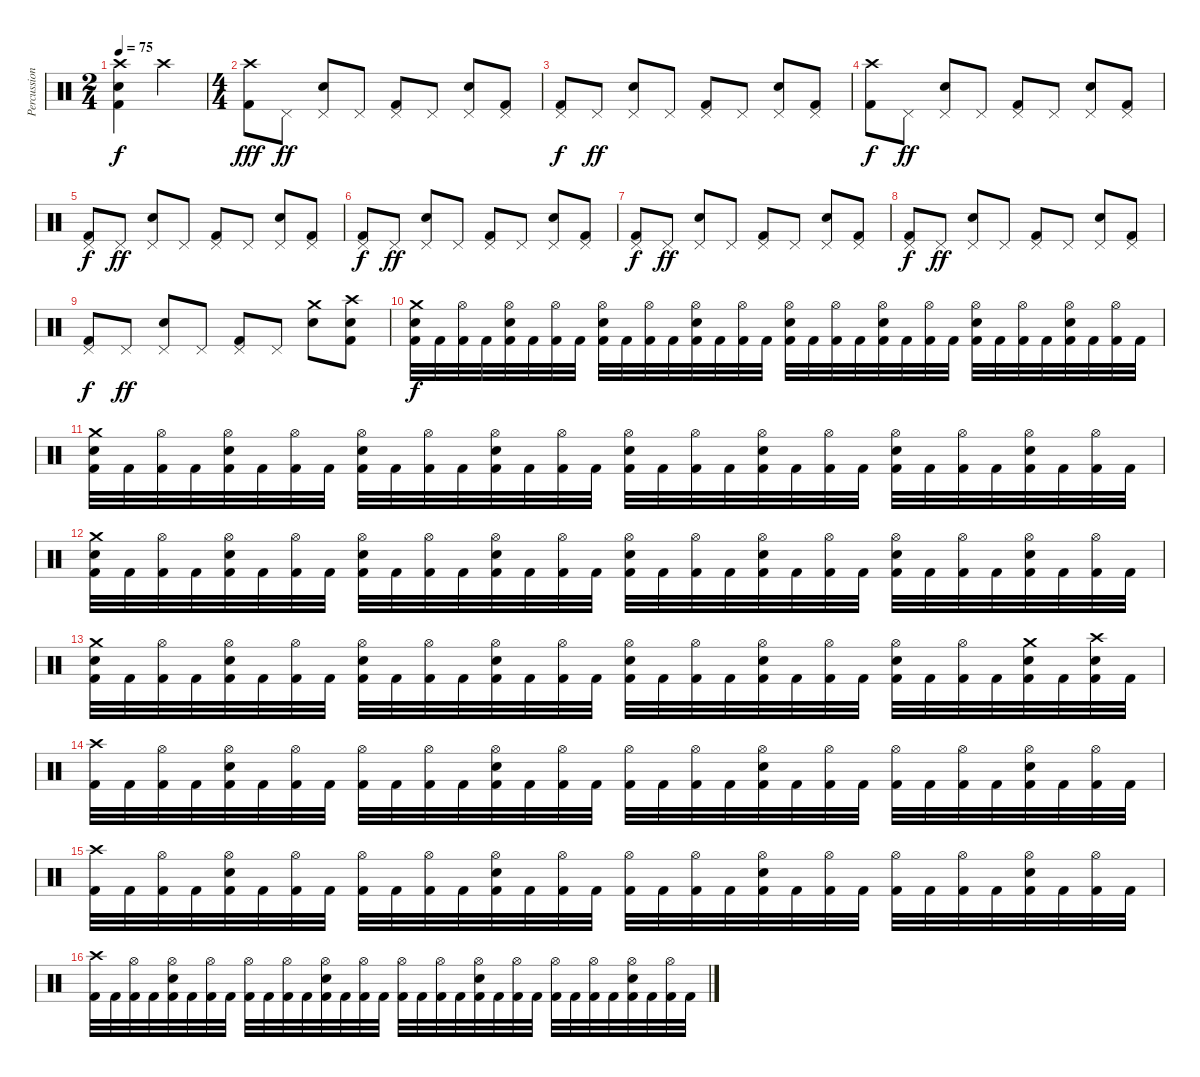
\track ("Percussion" "Percussion") {instrument percussion}
\staff {score}
\articulation defaults
\ts (2 4)
\tempo 75
\clef neutral
\ks c
("Crash high (hit)" "Electric Snare (hit)" "Kick (hit) 2").4{dy f} "Crash high (hit)".4 |
\ts (4 4)
("Crash high (hit)" "Kick (hit) 2").8{dy fff} "Pedal Hi-Hat (hit)".8{dy ff} ("Pedal Hi-Hat (hit)" "Electric Snare (hit)").8 "Pedal Hi-Hat (hit)".8 ("Pedal Hi-Hat (hit)" "Kick (hit) 2").8 "Pedal Hi-Hat (hit)".8 ("Pedal Hi-Hat (hit)" "Electric Snare (hit)").8 ("Pedal Hi-Hat (hit)" "Kick (hit) 2").8 |
("Pedal Hi-Hat (hit)" "Kick (hit) 2").8{dy f} "Pedal Hi-Hat (hit)".8{dy ff} ("Pedal Hi-Hat (hit)" "Electric Snare (hit)").8 "Pedal Hi-Hat (hit)".8 ("Pedal Hi-Hat (hit)" "Kick (hit) 2").8 "Pedal Hi-Hat (hit)".8 ("Pedal Hi-Hat (hit)" "Electric Snare (hit)").8 ("Pedal Hi-Hat (hit)" "Kick (hit) 2").8 |
("Crash high (hit)" "Kick (hit) 2").8{dy f} "Pedal Hi-Hat (hit)".8{dy ff} ("Pedal Hi-Hat (hit)" "Electric Snare (hit)").8 "Pedal Hi-Hat (hit)".8 ("Pedal Hi-Hat (hit)" "Kick (hit) 2").8 "Pedal Hi-Hat (hit)".8 ("Pedal Hi-Hat (hit)" "Electric Snare (hit)").8 ("Pedal Hi-Hat (hit)" "Kick (hit) 2").8 |
("Pedal Hi-Hat (hit)" "Kick (hit) 2").8{dy f} "Pedal Hi-Hat (hit)".8{dy ff} ("Pedal Hi-Hat (hit)" "Electric Snare (hit)").8 "Pedal Hi-Hat (hit)".8 ("Pedal Hi-Hat (hit)" "Kick (hit) 2").8 "Pedal Hi-Hat (hit)".8 ("Pedal Hi-Hat (hit)" "Electric Snare (hit)").8 ("Pedal Hi-Hat (hit)" "Kick (hit) 2").8 |
("Pedal Hi-Hat (hit)" "Kick (hit) 2").8{dy f} "Pedal Hi-Hat (hit)".8{dy ff} ("Pedal Hi-Hat (hit)" "Electric Snare (hit)").8 "Pedal Hi-Hat (hit)".8 ("Pedal Hi-Hat (hit)" "Kick (hit) 2").8 "Pedal Hi-Hat (hit)".8 ("Pedal Hi-Hat (hit)" "Electric Snare (hit)").8 ("Pedal Hi-Hat (hit)" "Kick (hit) 2").8 |
("Pedal Hi-Hat (hit)" "Kick (hit) 2").8{dy f} "Pedal Hi-Hat (hit)".8{dy ff} ("Pedal Hi-Hat (hit)" "Electric Snare (hit)").8 "Pedal Hi-Hat (hit)".8 ("Pedal Hi-Hat (hit)" "Kick (hit) 2").8 "Pedal Hi-Hat (hit)".8 ("Pedal Hi-Hat (hit)" "Electric Snare (hit)").8 ("Pedal Hi-Hat (hit)" "Kick (hit) 2").8 |
("Pedal Hi-Hat (hit)" "Kick (hit) 2").8{dy f} "Pedal Hi-Hat (hit)".8{dy ff} ("Pedal Hi-Hat (hit)" "Electric Snare (hit)").8 "Pedal Hi-Hat (hit)".8 ("Pedal Hi-Hat (hit)" "Kick (hit) 2").8 "Pedal Hi-Hat (hit)".8 ("Pedal Hi-Hat (hit)" "Electric Snare (hit)").8 ("Pedal Hi-Hat (hit)" "Kick (hit) 2").8 |
("Pedal Hi-Hat (hit)" "Kick (hit) 2").8{dy f} "Pedal Hi-Hat (hit)".8{dy ff} ("Pedal Hi-Hat (hit)" "Electric Snare (hit)").8 "Pedal Hi-Hat (hit)".8 ("Pedal Hi-Hat (hit)" "Kick (hit) 2").8 "Pedal Hi-Hat (hit)".8 ("Crash medium (hit)" "Electric Snare (hit)").8 ("Crash high (hit)" "Electric Snare (hit)" "Kick (hit) 2").8 |
("Crash medium (hit)" "Electric Snare (hit)" "Kick (hit) 2").32{dy f} "Kick (hit) 2".32 ("Hi-Hat (open)" "Kick (hit) 2").32 "Kick (hit) 2".32 ("Hi-Hat (open)" "Electric Snare (hit)" "Kick (hit) 2").32 "Kick (hit) 2".32 ("Hi-Hat (open)" "Kick (hit) 2").32 "Kick (hit) 2".32 ("Hi-Hat (open)" "Electric Snare (hit)" "Kick (hit) 2").32 "Kick (hit) 2".32 ("Hi-Hat (open)" "Kick (hit) 2").32 "Kick (hit) 2".32 ("Hi-Hat (open)" "Electric Snare (hit)" "Kick (hit) 2").32 "Kick (hit) 2".32 ("Hi-Hat (open)" "Kick (hit) 2").32 "Kick (hit) 2".32 ("Hi-Hat (open)" "Electric Snare (hit)" "Kick (hit) 2").32 "Kick (hit) 2".32 ("Hi-Hat (open)" "Kick (hit) 2").32 "Kick (hit) 2".32 ("Hi-Hat (open)" "Electric Snare (hit)" "Kick (hit) 2").32 "Kick (hit) 2".32 ("Hi-Hat (open)" "Kick (hit) 2").32 "Kick (hit) 2".32 ("Hi-Hat (open)" "Electric Snare (hit)" "Kick (hit) 2").32 "Kick (hit) 2".32 ("Hi-Hat (open)" "Kick (hit) 2").32 "Kick (hit) 2".32 ("Hi-Hat (open)" "Electric Snare (hit)" "Kick (hit) 2").32 "Kick (hit) 2".32 ("Hi-Hat (open)" "Kick (hit) 2").32 "Kick (hit) 2".32 |
("Crash medium (hit)" "Electric Snare (hit)" "Kick (hit) 2").32 "Kick (hit) 2".32 ("Hi-Hat (open)" "Kick (hit) 2").32 "Kick (hit) 2".32 ("Hi-Hat (open)" "Electric Snare (hit)" "Kick (hit) 2").32 "Kick (hit) 2".32 ("Hi-Hat (open)" "Kick (hit) 2").32 "Kick (hit) 2".32 ("Hi-Hat (open)" "Electric Snare (hit)" "Kick (hit) 2").32 "Kick (hit) 2".32 ("Hi-Hat (open)" "Kick (hit) 2").32 "Kick (hit) 2".32 ("Hi-Hat (open)" "Electric Snare (hit)" "Kick (hit) 2").32 "Kick (hit) 2".32 ("Hi-Hat (open)" "Kick (hit) 2").32 "Kick (hit) 2".32 ("Hi-Hat (open)" "Electric Snare (hit)" "Kick (hit) 2").32 "Kick (hit) 2".32 ("Hi-Hat (open)" "Kick (hit) 2").32 "Kick (hit) 2".32 ("Hi-Hat (open)" "Electric Snare (hit)" "Kick (hit) 2").32 "Kick (hit) 2".32 ("Hi-Hat (open)" "Kick (hit) 2").32 "Kick (hit) 2".32 ("Hi-Hat (open)" "Electric Snare (hit)" "Kick (hit) 2").32 "Kick (hit) 2".32 ("Hi-Hat (open)" "Kick (hit) 2").32 "Kick (hit) 2".32 ("Hi-Hat (open)" "Electric Snare (hit)" "Kick (hit) 2").32 "Kick (hit) 2".32 ("Hi-Hat (open)" "Kick (hit) 2").32 "Kick (hit) 2".32 |
("Crash medium (hit)" "Electric Snare (hit)" "Kick (hit) 2").32 "Kick (hit) 2".32 ("Hi-Hat (open)" "Kick (hit) 2").32 "Kick (hit) 2".32 ("Hi-Hat (open)" "Electric Snare (hit)" "Kick (hit) 2").32 "Kick (hit) 2".32 ("Hi-Hat (open)" "Kick (hit) 2").32 "Kick (hit) 2".32 ("Hi-Hat (open)" "Electric Snare (hit)" "Kick (hit) 2").32 "Kick (hit) 2".32 ("Hi-Hat (open)" "Kick (hit) 2").32 "Kick (hit) 2".32 ("Hi-Hat (open)" "Electric Snare (hit)" "Kick (hit) 2").32 "Kick (hit) 2".32 ("Hi-Hat (open)" "Kick (hit) 2").32 "Kick (hit) 2".32 ("Hi-Hat (open)" "Electric Snare (hit)" "Kick (hit) 2").32 "Kick (hit) 2".32 ("Hi-Hat (open)" "Kick (hit) 2").32 "Kick (hit) 2".32 ("Hi-Hat (open)" "Electric Snare (hit)" "Kick (hit) 2").32 "Kick (hit) 2".32 ("Hi-Hat (open)" "Kick (hit) 2").32 "Kick (hit) 2".32 ("Hi-Hat (open)" "Electric Snare (hit)" "Kick (hit) 2").32 "Kick (hit) 2".32 ("Hi-Hat (open)" "Kick (hit) 2").32 "Kick (hit) 2".32 ("Hi-Hat (open)" "Electric Snare (hit)" "Kick (hit) 2").32 "Kick (hit) 2".32 ("Hi-Hat (open)" "Kick (hit) 2").32 "Kick (hit) 2".32 |
("Crash medium (hit)" "Electric Snare (hit)" "Kick (hit) 2").32 "Kick (hit) 2".32 ("Hi-Hat (open)" "Kick (hit) 2").32 "Kick (hit) 2".32 ("Hi-Hat (open)" "Electric Snare (hit)" "Kick (hit) 2").32 "Kick (hit) 2".32 ("Hi-Hat (open)" "Kick (hit) 2").32 "Kick (hit) 2".32 ("Hi-Hat (open)" "Electric Snare (hit)" "Kick (hit) 2").32 "Kick (hit) 2".32 ("Hi-Hat (open)" "Kick (hit) 2").32 "Kick (hit) 2".32 ("Hi-Hat (open)" "Electric Snare (hit)" "Kick (hit) 2").32 "Kick (hit) 2".32 ("Hi-Hat (open)" "Kick (hit) 2").32 "Kick (hit) 2".32 ("Hi-Hat (open)" "Electric Snare (hit)" "Kick (hit) 2").32 "Kick (hit) 2".32 ("Hi-Hat (open)" "Kick (hit) 2").32 "Kick (hit) 2".32 ("Hi-Hat (open)" "Electric Snare (hit)" "Kick (hit) 2").32 "Kick (hit) 2".32 ("Hi-Hat (open)" "Kick (hit) 2").32 "Kick (hit) 2".32 ("Hi-Hat (open)" "Electric Snare (hit)" "Kick (hit) 2").32 "Kick (hit) 2".32 ("Hi-Hat (open)" "Kick (hit) 2").32 "Kick (hit) 2".32 ("Crash medium (hit)" "Electric Snare (hit)" "Kick (hit) 2").32 "Kick (hit) 2".32 ("Crash high (hit)" "Electric Snare (hit)" "Kick (hit) 2").32 "Kick (hit) 2".32 |
("Crash high (hit)" "Kick (hit) 2").32 "Kick (hit) 2".32 ("Hi-Hat (open)" "Kick (hit) 2").32 "Kick (hit) 2".32 ("Hi-Hat (open)" "Electric Snare (hit)" "Kick (hit) 2").32 "Kick (hit) 2".32 ("Hi-Hat (open)" "Kick (hit) 2").32 "Kick (hit) 2".32 ("Hi-Hat (open)" "Kick (hit) 2").32 "Kick (hit) 2".32 ("Hi-Hat (open)" "Kick (hit) 2").32 "Kick (hit) 2".32 ("Hi-Hat (open)" "Electric Snare (hit)" "Kick (hit) 2").32 "Kick (hit) 2".32 ("Hi-Hat (open)" "Kick (hit) 2").32 "Kick (hit) 2".32 ("Hi-Hat (open)" "Kick (hit) 2").32 "Kick (hit) 2".32 ("Hi-Hat (open)" "Kick (hit) 2").32 "Kick (hit) 2".32 ("Hi-Hat (open)" "Electric Snare (hit)" "Kick (hit) 2").32 "Kick (hit) 2".32 ("Hi-Hat (open)" "Kick (hit) 2").32 "Kick (hit) 2".32 ("Hi-Hat (open)" "Kick (hit) 2").32 "Kick (hit) 2".32 ("Hi-Hat (open)" "Kick (hit) 2").32 "Kick (hit) 2".32 ("Hi-Hat (open)" "Electric Snare (hit)" "Kick (hit) 2").32 "Kick (hit) 2".32 ("Hi-Hat (open)" "Kick (hit) 2").32 "Kick (hit) 2".32 |
("Crash high (hit)" "Kick (hit) 2").32 "Kick (hit) 2".32 ("Hi-Hat (open)" "Kick (hit) 2").32 "Kick (hit) 2".32 ("Hi-Hat (open)" "Electric Snare (hit)" "Kick (hit) 2").32 "Kick (hit) 2".32 ("Hi-Hat (open)" "Kick (hit) 2").32 "Kick (hit) 2".32 ("Hi-Hat (open)" "Kick (hit) 2").32 "Kick (hit) 2".32 ("Hi-Hat (open)" "Kick (hit) 2").32 "Kick (hit) 2".32 ("Hi-Hat (open)" "Electric Snare (hit)" "Kick (hit) 2").32 "Kick (hit) 2".32 ("Hi-Hat (open)" "Kick (hit) 2").32 "Kick (hit) 2".32 ("Hi-Hat (open)" "Kick (hit) 2").32 "Kick (hit) 2".32 ("Hi-Hat (open)" "Kick (hit) 2").32 "Kick (hit) 2".32 ("Hi-Hat (open)" "Electric Snare (hit)" "Kick (hit) 2").32 "Kick (hit) 2".32 ("Hi-Hat (open)" "Kick (hit) 2").32 "Kick (hit) 2".32 ("Hi-Hat (open)" "Kick (hit) 2").32 "Kick (hit) 2".32 ("Hi-Hat (open)" "Kick (hit) 2").32 "Kick (hit) 2".32 ("Hi-Hat (open)" "Electric Snare (hit)" "Kick (hit) 2").32 "Kick (hit) 2".32 ("Hi-Hat (open)" "Kick (hit) 2").32 "Kick (hit) 2".32 |
("Crash high (hit)" "Kick (hit) 2").32 "Kick (hit) 2".32 ("Hi-Hat (open)" "Kick (hit) 2").32 "Kick (hit) 2".32 ("Hi-Hat (open)" "Electric Snare (hit)" "Kick (hit) 2").32 "Kick (hit) 2".32 ("Hi-Hat (open)" "Kick (hit) 2").32 "Kick (hit) 2".32 ("Hi-Hat (open)" "Kick (hit) 2").32 "Kick (hit) 2".32 ("Hi-Hat (open)" "Kick (hit) 2").32 "Kick (hit) 2".32 ("Hi-Hat (open)" "Electric Snare (hit)" "Kick (hit) 2").32 "Kick (hit) 2".32 ("Hi-Hat (open)" "Kick (hit) 2").32 "Kick (hit) 2".32 ("Hi-Hat (open)" "Kick (hit) 2").32 "Kick (hit) 2".32 ("Hi-Hat (open)" "Kick (hit) 2").32 "Kick (hit) 2".32 ("Hi-Hat (open)" "Electric Snare (hit)" "Kick (hit) 2").32 "Kick (hit) 2".32 ("Hi-Hat (open)" "Kick (hit) 2").32 "Kick (hit) 2".32 ("Hi-Hat (open)" "Kick (hit) 2").32 "Kick (hit) 2".32 ("Hi-Hat (open)" "Kick (hit) 2").32 "Kick (hit) 2".32 ("Hi-Hat (open)" "Electric Snare (hit)" "Kick (hit) 2").32 "Kick (hit) 2".32 ("Hi-Hat (open)" "Kick (hit) 2").32 "Kick (hit) 2".32
